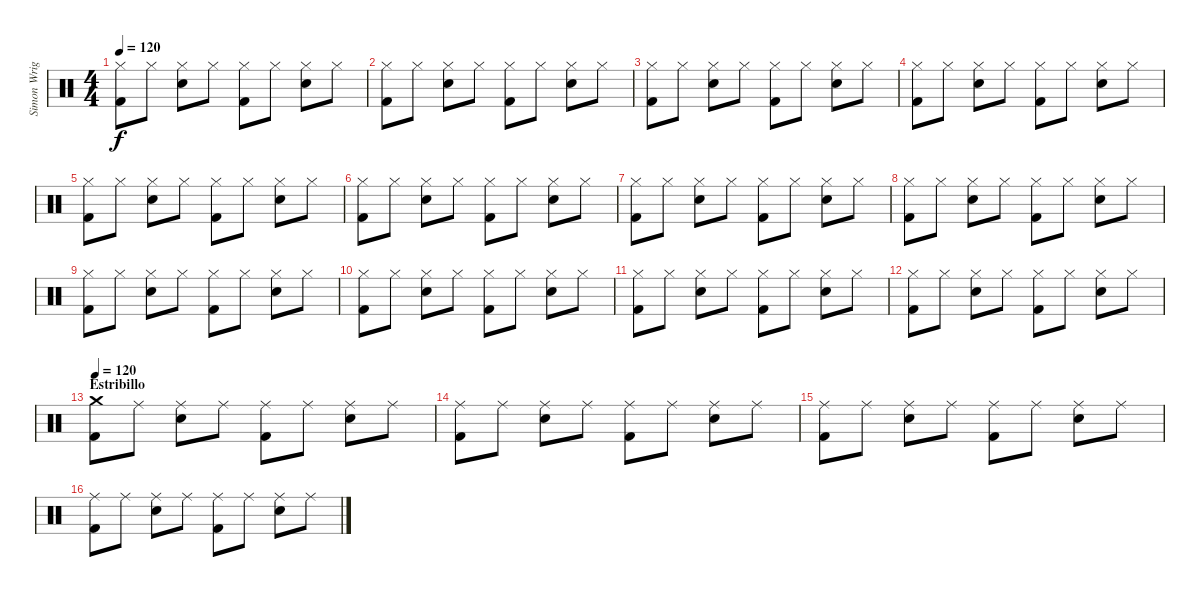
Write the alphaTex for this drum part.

\track ("Simon Wright" "Simon Wrig") {instrument percussion}
\staff {score}
\articulation defaults
\ts (4 4)
\tempo 120
\clef neutral
\ks c
("Hi-Hat (closed)" "Kick (hit) 2").8{dy f} "Hi-Hat (closed)".8 ("Hi-Hat (closed)" "Snare (hit) 2").8 "Hi-Hat (closed)".8 ("Hi-Hat (closed)" "Kick (hit) 2").8 "Hi-Hat (closed)".8 ("Hi-Hat (closed)" "Snare (hit) 2").8 "Hi-Hat (closed)".8 |
("Hi-Hat (closed)" "Kick (hit) 2").8 "Hi-Hat (closed)".8 ("Hi-Hat (closed)" "Snare (hit) 2").8 "Hi-Hat (closed)".8 ("Hi-Hat (closed)" "Kick (hit) 2").8 "Hi-Hat (closed)".8 ("Hi-Hat (closed)" "Snare (hit) 2").8 "Hi-Hat (closed)".8 |
("Hi-Hat (closed)" "Kick (hit) 2").8 "Hi-Hat (closed)".8 ("Hi-Hat (closed)" "Snare (hit) 2").8 "Hi-Hat (closed)".8 ("Hi-Hat (closed)" "Kick (hit) 2").8 "Hi-Hat (closed)".8 ("Hi-Hat (closed)" "Snare (hit) 2").8 "Hi-Hat (closed)".8 |
("Hi-Hat (closed)" "Kick (hit) 2").8 "Hi-Hat (closed)".8 ("Hi-Hat (closed)" "Snare (hit) 2").8 "Hi-Hat (closed)".8 ("Hi-Hat (closed)" "Kick (hit) 2").8 "Hi-Hat (closed)".8 ("Hi-Hat (closed)" "Snare (hit) 2").8 "Hi-Hat (closed)".8 |
("Hi-Hat (closed)" "Kick (hit) 2").8 "Hi-Hat (closed)".8 ("Hi-Hat (closed)" "Snare (hit) 2").8 "Hi-Hat (closed)".8 ("Hi-Hat (closed)" "Kick (hit) 2").8 "Hi-Hat (closed)".8 ("Hi-Hat (closed)" "Snare (hit) 2").8 "Hi-Hat (closed)".8 |
("Hi-Hat (closed)" "Kick (hit) 2").8 "Hi-Hat (closed)".8 ("Hi-Hat (closed)" "Snare (hit) 2").8 "Hi-Hat (closed)".8 ("Hi-Hat (closed)" "Kick (hit) 2").8 "Hi-Hat (closed)".8 ("Hi-Hat (closed)" "Snare (hit) 2").8 "Hi-Hat (closed)".8 |
("Hi-Hat (closed)" "Kick (hit) 2").8 "Hi-Hat (closed)".8 ("Hi-Hat (closed)" "Snare (hit) 2").8 "Hi-Hat (closed)".8 ("Hi-Hat (closed)" "Kick (hit) 2").8 "Hi-Hat (closed)".8 ("Hi-Hat (closed)" "Snare (hit) 2").8 "Hi-Hat (closed)".8 |
("Hi-Hat (closed)" "Kick (hit) 2").8 "Hi-Hat (closed)".8 ("Hi-Hat (closed)" "Snare (hit) 2").8 "Hi-Hat (closed)".8 ("Hi-Hat (closed)" "Kick (hit) 2").8 "Hi-Hat (closed)".8 ("Hi-Hat (closed)" "Snare (hit) 2").8 "Hi-Hat (closed)".8 |
("Hi-Hat (closed)" "Kick (hit) 2").8 "Hi-Hat (closed)".8 ("Hi-Hat (closed)" "Snare (hit) 2").8 "Hi-Hat (closed)".8 ("Hi-Hat (closed)" "Kick (hit) 2").8 "Hi-Hat (closed)".8 ("Hi-Hat (closed)" "Snare (hit) 2").8 "Hi-Hat (closed)".8 |
("Hi-Hat (closed)" "Kick (hit) 2").8 "Hi-Hat (closed)".8 ("Hi-Hat (closed)" "Snare (hit) 2").8 "Hi-Hat (closed)".8 ("Hi-Hat (closed)" "Kick (hit) 2").8 "Hi-Hat (closed)".8 ("Hi-Hat (closed)" "Snare (hit) 2").8 "Hi-Hat (closed)".8 |
("Hi-Hat (closed)" "Kick (hit) 2").8 "Hi-Hat (closed)".8 ("Hi-Hat (closed)" "Snare (hit) 2").8 "Hi-Hat (closed)".8 ("Hi-Hat (closed)" "Kick (hit) 2").8 "Hi-Hat (closed)".8 ("Hi-Hat (closed)" "Snare (hit) 2").8 "Hi-Hat (closed)".8 |
("Hi-Hat (closed)" "Kick (hit) 2").8 "Hi-Hat (closed)".8 ("Hi-Hat (closed)" "Snare (hit) 2").8 "Hi-Hat (closed)".8 ("Hi-Hat (closed)" "Kick (hit) 2").8 "Hi-Hat (closed)".8 ("Hi-Hat (closed)" "Snare (hit) 2").8 "Hi-Hat (closed)".8 |
\section ("" "Estribillo")
\tempo 120
("Crash medium (hit)" "Kick (hit) 2").8 "Ride (middle)".8 ("Ride (middle)" "Snare (hit) 2").8 "Ride (middle)".8 ("Ride (middle)" "Kick (hit) 2").8 "Ride (middle)".8 ("Ride (middle)" "Snare (hit) 2").8 "Ride (middle)".8 |
("Ride (middle)" "Kick (hit) 2").8 "Ride (middle)".8 ("Ride (middle)" "Snare (hit) 2").8 "Ride (middle)".8 ("Ride (middle)" "Kick (hit) 2").8 "Ride (middle)".8 ("Ride (middle)" "Snare (hit) 2").8 "Ride (middle)".8 |
("Ride (middle)" "Kick (hit) 2").8 "Ride (middle)".8 ("Ride (middle)" "Snare (hit) 2").8 "Ride (middle)".8 ("Ride (middle)" "Kick (hit) 2").8 "Ride (middle)".8 ("Ride (middle)" "Snare (hit) 2").8 "Ride (middle)".8 |
("Ride (middle)" "Kick (hit) 2").8 "Ride (middle)".8 ("Ride (middle)" "Snare (hit) 2").8 "Ride (middle)".8 ("Ride (middle)" "Kick (hit) 2").8 "Ride (middle)".8 ("Ride (middle)" "Snare (hit) 2").8 "Ride (middle)".8
